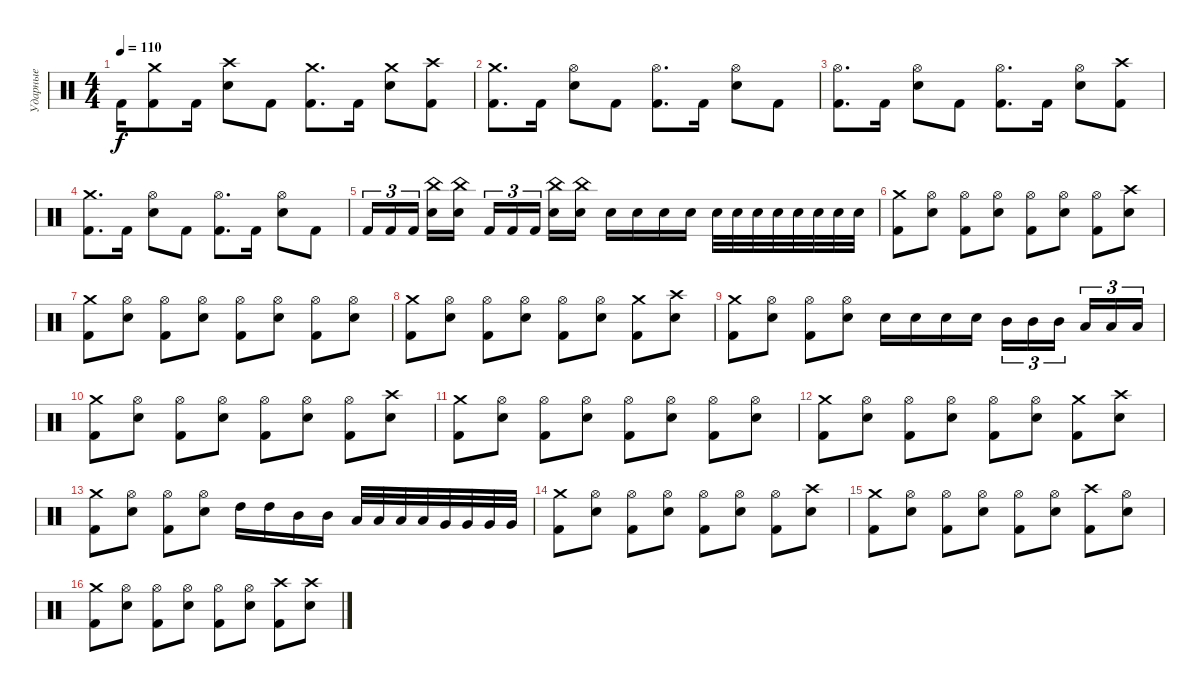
\track ("Ударные" "Ударные") {instrument percussion}
\staff {score}
\articulation defaults
\ts (4 4)
\tempo 110
\clef neutral
\ks c "Kick (hit) 2".16{dy f}
("Crash medium (hit)" "Kick (hit) 2").8 "Kick (hit) 2".16 ("Crash high (hit)" "Electric Snare (hit)").8 "Kick (hit) 2".8 ("Crash medium (hit)" "Kick (hit) 2").8{d} "Kick (hit) 2".16 ("Crash medium (hit)" "Electric Snare (hit)").8 ("Crash high (hit)" "Kick (hit) 2").8 |
("Crash medium (hit)" "Kick (hit) 2").8{d} "Kick (hit) 2".16 ("Hi-Hat (open)" "Electric Snare (hit)").8 "Kick (hit) 2".8 ("Hi-Hat (open)" "Kick (hit) 2").8{d} "Kick (hit) 2".16 ("Hi-Hat (open)" "Electric Snare (hit)").8 "Kick (hit) 2".8 |
("Hi-Hat (open)" "Kick (hit) 2").8{d} "Kick (hit) 2".16 ("Hi-Hat (open)" "Electric Snare (hit)").8 "Kick (hit) 2".8 ("Hi-Hat (open)" "Kick (hit) 2").8{d} "Kick (hit) 2".16 ("Hi-Hat (open)" "Electric Snare (hit)").8 ("Crash high (hit)" "Kick (hit) 2").8 |
("Crash medium (hit)" "Kick (hit) 2").8{d} "Kick (hit) 2".16 ("Hi-Hat (open)" "Electric Snare (hit)").8 "Kick (hit) 2".8 ("Hi-Hat (open)" "Kick (hit) 2").8{d} "Kick (hit) 2".16 ("Hi-Hat (open)" "Electric Snare (hit)").8 "Kick (hit) 2".8 |
"Kick (hit) 2".16{tu (3 2)} "Kick (hit) 2".16{tu (3 2)} "Kick (hit) 2".16{tu (3 2) beam splitsecondary} ("China (hit)" "Electric Snare (hit)").16 ("China (hit)" "Electric Snare (hit)").16 "Kick (hit) 2".16{tu (3 2)} "Kick (hit) 2".16{tu (3 2)} "Kick (hit) 2".16{tu (3 2) beam splitsecondary} ("China (hit)" "Electric Snare (hit)").16 ("China (hit)" "Electric Snare (hit)").16 "Electric Snare (hit)".16 "Electric Snare (hit)".16 "Electric Snare (hit)".16 "Electric Snare (hit)".16 "Electric Snare (hit)".32 "Electric Snare (hit)".32 "Electric Snare (hit)".32 "Electric Snare (hit)".32 "Electric Snare (hit)".32 "Electric Snare (hit)".32 "Electric Snare (hit)".32 "Electric Snare (hit)".32 |
("Crash medium (hit)" "Kick (hit) 2").8 ("Hi-Hat (open)" "Electric Snare (hit)").8 ("Hi-Hat (open)" "Kick (hit) 2").8 ("Hi-Hat (open)" "Electric Snare (hit)").8 ("Hi-Hat (open)" "Kick (hit) 2").8 ("Hi-Hat (open)" "Electric Snare (hit)").8 ("Hi-Hat (open)" "Kick (hit) 2").8 ("Crash high (hit)" "Electric Snare (hit)").8 |
("Crash medium (hit)" "Kick (hit) 2").8 ("Hi-Hat (open)" "Electric Snare (hit)").8 ("Hi-Hat (open)" "Kick (hit) 2").8 ("Hi-Hat (open)" "Electric Snare (hit)").8 ("Hi-Hat (open)" "Kick (hit) 2").8 ("Hi-Hat (open)" "Electric Snare (hit)").8 ("Hi-Hat (open)" "Kick (hit) 2").8 ("Hi-Hat (open)" "Electric Snare (hit)").8 |
("Crash medium (hit)" "Kick (hit) 2").8 ("Hi-Hat (open)" "Electric Snare (hit)").8 ("Hi-Hat (open)" "Kick (hit) 2").8 ("Hi-Hat (open)" "Electric Snare (hit)").8 ("Hi-Hat (open)" "Kick (hit) 2").8 ("Hi-Hat (open)" "Electric Snare (hit)").8 ("Crash medium (hit)" "Kick (hit) 2").8 ("Crash high (hit)" "Electric Snare (hit)").8 |
("Crash medium (hit)" "Kick (hit) 2").8 ("Hi-Hat (open)" "Electric Snare (hit)").8 ("Hi-Hat (open)" "Kick (hit) 2").8 ("Hi-Hat (open)" "Electric Snare (hit)").8 "Electric Snare (hit)".16 "Electric Snare (hit)".16 "Electric Snare (hit)".16 "Electric Snare (hit)".16 "Mid Tom (hit)".16{tu (3 2)} "Mid Tom (hit)".16{tu (3 2)} "Mid Tom (hit)".16{tu (3 2) beam splitsecondary} "Low Tom (hit)".16{tu (3 2)} "Low Tom (hit)".16{tu (3 2)} "Low Tom (hit)".16{tu (3 2)} |
("Crash medium (hit)" "Kick (hit) 2").8 ("Hi-Hat (open)" "Electric Snare (hit)").8 ("Hi-Hat (open)" "Kick (hit) 2").8 ("Hi-Hat (open)" "Electric Snare (hit)").8 ("Hi-Hat (open)" "Kick (hit) 2").8 ("Hi-Hat (open)" "Electric Snare (hit)").8 ("Hi-Hat (open)" "Kick (hit) 2").8 ("Crash high (hit)" "Electric Snare (hit)").8 |
("Crash medium (hit)" "Kick (hit) 2").8 ("Hi-Hat (open)" "Electric Snare (hit)").8 ("Hi-Hat (open)" "Kick (hit) 2").8 ("Hi-Hat (open)" "Electric Snare (hit)").8 ("Hi-Hat (open)" "Kick (hit) 2").8 ("Hi-Hat (open)" "Electric Snare (hit)").8 ("Hi-Hat (open)" "Kick (hit) 2").8 ("Hi-Hat (open)" "Electric Snare (hit)").8 |
("Crash medium (hit)" "Kick (hit) 2").8 ("Hi-Hat (open)" "Electric Snare (hit)").8 ("Hi-Hat (open)" "Kick (hit) 2").8 ("Hi-Hat (open)" "Electric Snare (hit)").8 ("Hi-Hat (open)" "Kick (hit) 2").8 ("Hi-Hat (open)" "Electric Snare (hit)").8 ("Crash medium (hit)" "Kick (hit) 2").8 ("Crash high (hit)" "Electric Snare (hit)").8 |
("Crash medium (hit)" "Kick (hit) 2").8 ("Hi-Hat (open)" "Electric Snare (hit)").8 ("Hi-Hat (open)" "Kick (hit) 2").8 ("Hi-Hat (open)" "Electric Snare (hit)").8 "High Tom (hit)".16 "High Tom (hit)".16 "Mid Tom (hit)".16 "Mid Tom (hit)".16 "Low Tom (hit)".32 "Low Tom (hit)".32 "Low Tom (hit)".32 "Low Tom (hit)".32 "Very Low Tom (hit)".32 "Very Low Tom (hit)".32 "Very Low Tom (hit)".32 "Very Low Tom (hit)".32 |
("Crash medium (hit)" "Kick (hit) 2").8 ("Hi-Hat (open)" "Electric Snare (hit)").8 ("Hi-Hat (open)" "Kick (hit) 2").8 ("Hi-Hat (open)" "Electric Snare (hit)").8 ("Hi-Hat (open)" "Kick (hit) 2").8 ("Hi-Hat (open)" "Electric Snare (hit)").8 ("Hi-Hat (open)" "Kick (hit) 2").8 ("Crash high (hit)" "Electric Snare (hit)").8 |
("Crash medium (hit)" "Kick (hit) 2").8 ("Hi-Hat (open)" "Electric Snare (hit)").8 ("Hi-Hat (open)" "Kick (hit) 2").8 ("Hi-Hat (open)" "Electric Snare (hit)").8 ("Hi-Hat (open)" "Kick (hit) 2").8 ("Hi-Hat (open)" "Electric Snare (hit)").8 ("Crash high (hit)" "Kick (hit) 2").8 ("Hi-Hat (open)" "Electric Snare (hit)").8 |
("Crash medium (hit)" "Kick (hit) 2").8 ("Hi-Hat (open)" "Electric Snare (hit)").8 ("Hi-Hat (open)" "Kick (hit) 2").8 ("Hi-Hat (open)" "Electric Snare (hit)").8 ("Hi-Hat (open)" "Kick (hit) 2").8 ("Hi-Hat (open)" "Electric Snare (hit)").8 ("Crash high (hit)" "Kick (hit) 2").8 ("Crash high (hit)" "Electric Snare (hit)").8
